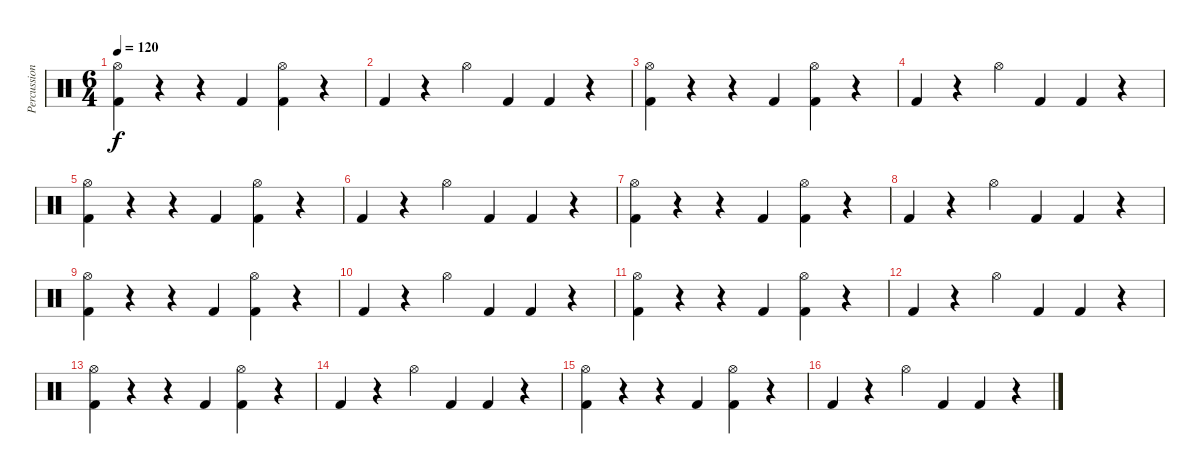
\track ("Percussions" "Percussion") {instrument percussion}
\staff {score}
\articulation defaults
\ts (6 4)
\tempo 120
\clef neutral
\ks c
("Hi-Hat (open)" "Kick (hit) 2").4{dy f} r.4 r.4 "Kick (hit) 2".4 ("Hi-Hat (open)" "Kick (hit) 2").4 r.4 |
"Kick (hit) 2".4 r.4 "Hi-Hat (open)".4 "Kick (hit) 2".4 "Kick (hit) 2".4 r.4 |
("Hi-Hat (open)" "Kick (hit) 2").4 r.4 r.4 "Kick (hit) 2".4 ("Hi-Hat (open)" "Kick (hit) 2").4 r.4 |
"Kick (hit) 2".4 r.4 "Hi-Hat (open)".4 "Kick (hit) 2".4 "Kick (hit) 2".4 r.4 |
("Hi-Hat (open)" "Kick (hit) 2").4 r.4 r.4 "Kick (hit) 2".4 ("Hi-Hat (open)" "Kick (hit) 2").4 r.4 |
"Kick (hit) 2".4 r.4 "Hi-Hat (open)".4 "Kick (hit) 2".4 "Kick (hit) 2".4 r.4 |
("Hi-Hat (open)" "Kick (hit) 2").4 r.4 r.4 "Kick (hit) 2".4 ("Hi-Hat (open)" "Kick (hit) 2").4 r.4 |
"Kick (hit) 2".4 r.4 "Hi-Hat (open)".4 "Kick (hit) 2".4 "Kick (hit) 2".4 r.4 |
("Hi-Hat (open)" "Kick (hit) 2").4 r.4 r.4 "Kick (hit) 2".4 ("Hi-Hat (open)" "Kick (hit) 2").4 r.4 |
"Kick (hit) 2".4 r.4 "Hi-Hat (open)".4 "Kick (hit) 2".4 "Kick (hit) 2".4 r.4 |
("Hi-Hat (open)" "Kick (hit) 2").4 r.4 r.4 "Kick (hit) 2".4 ("Hi-Hat (open)" "Kick (hit) 2").4 r.4 |
"Kick (hit) 2".4 r.4 "Hi-Hat (open)".4 "Kick (hit) 2".4 "Kick (hit) 2".4 r.4 |
("Hi-Hat (open)" "Kick (hit) 2").4 r.4 r.4 "Kick (hit) 2".4 ("Hi-Hat (open)" "Kick (hit) 2").4 r.4 |
"Kick (hit) 2".4 r.4 "Hi-Hat (open)".4 "Kick (hit) 2".4 "Kick (hit) 2".4 r.4 |
("Hi-Hat (open)" "Kick (hit) 2").4 r.4 r.4 "Kick (hit) 2".4 ("Hi-Hat (open)" "Kick (hit) 2").4 r.4 |
"Kick (hit) 2".4 r.4 "Hi-Hat (open)".4 "Kick (hit) 2".4 "Kick (hit) 2".4 r.4
